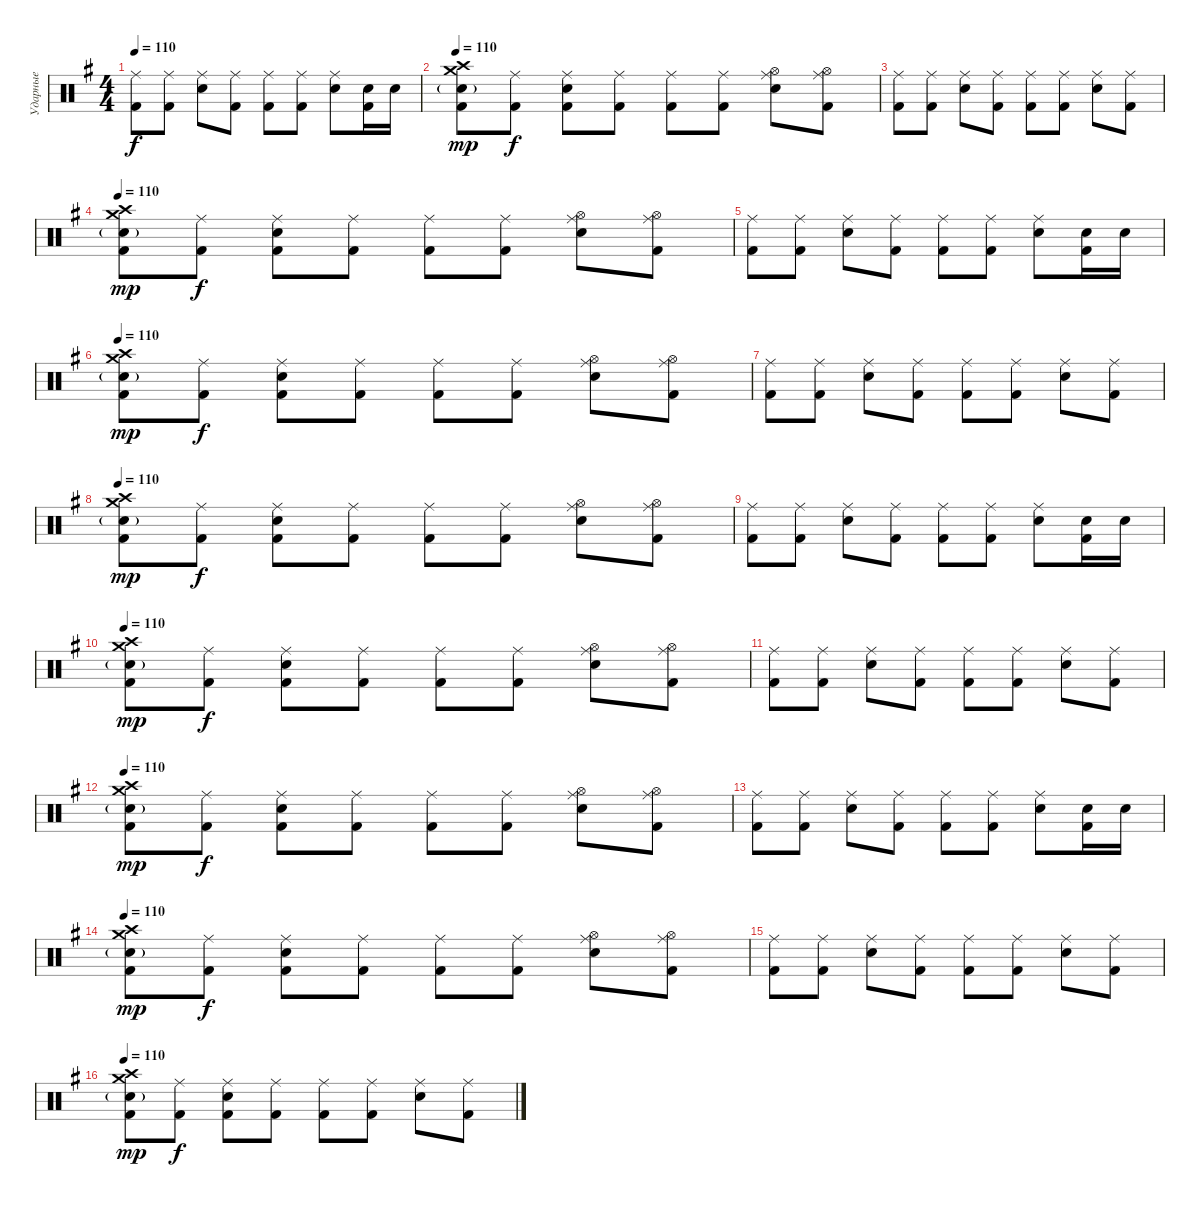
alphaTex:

\track ("Ударные" "Ударные") {instrument percussion}
\staff {score}
\articulation defaults
\ts (4 4)
\tempo 110
\clef neutral
\ks eminor
("Ride (middle)" "Kick (hit) 2").8{dy f} ("Ride (middle)" "Kick (hit) 2").8 ("Ride (middle)" "Electric Snare (hit)").8 ("Ride (middle)" "Kick (hit) 2").8 ("Ride (middle)" "Kick (hit) 2").8 ("Ride (middle)" "Kick (hit) 2").8 ("Ride (middle)" "Electric Snare (hit)").8 ("Electric Snare (hit)" "Kick (hit) 2").16 "Electric Snare (hit)".16 |
\tempo 110
("Crash high (hit)" "Crash medium (hit)" "Electric Snare (hit)"{g} "Kick (hit) 2").8{dy mp} ("Ride (middle)" "Kick (hit) 2").8{dy f} ("Ride (middle)" "Electric Snare (hit)" "Kick (hit) 2").8 ("Ride (middle)" "Kick (hit) 2").8 ("Ride (middle)" "Kick (hit) 2").8 ("Ride (middle)" "Kick (hit) 2").8 ("Ride (middle)" "Hi-Hat (open)" "Electric Snare (hit)").8 ("Ride (middle)" "Hi-Hat (open)" "Kick (hit) 2").8 |
("Ride (middle)" "Kick (hit) 2").8 ("Ride (middle)" "Kick (hit) 2").8 ("Ride (middle)" "Electric Snare (hit)").8 ("Ride (middle)" "Kick (hit) 2").8 ("Ride (middle)" "Kick (hit) 2").8 ("Ride (middle)" "Kick (hit) 2").8 ("Ride (middle)" "Electric Snare (hit)").8 ("Ride (middle)" "Kick (hit) 2").8 |
\tempo 110
("Crash high (hit)" "Crash medium (hit)" "Electric Snare (hit)"{g} "Kick (hit) 2").8{dy mp} ("Ride (middle)" "Kick (hit) 2").8{dy f} ("Ride (middle)" "Electric Snare (hit)" "Kick (hit) 2").8 ("Ride (middle)" "Kick (hit) 2").8 ("Ride (middle)" "Kick (hit) 2").8 ("Ride (middle)" "Kick (hit) 2").8 ("Ride (middle)" "Hi-Hat (open)" "Electric Snare (hit)").8 ("Ride (middle)" "Hi-Hat (open)" "Kick (hit) 2").8 |
("Ride (middle)" "Kick (hit) 2").8 ("Ride (middle)" "Kick (hit) 2").8 ("Ride (middle)" "Electric Snare (hit)").8 ("Ride (middle)" "Kick (hit) 2").8 ("Ride (middle)" "Kick (hit) 2").8 ("Ride (middle)" "Kick (hit) 2").8 ("Ride (middle)" "Electric Snare (hit)").8 ("Electric Snare (hit)" "Kick (hit) 2").16 "Electric Snare (hit)".16 |
\tempo 110
("Crash high (hit)" "Crash medium (hit)" "Electric Snare (hit)"{g} "Kick (hit) 2").8{dy mp} ("Ride (middle)" "Kick (hit) 2").8{dy f} ("Ride (middle)" "Electric Snare (hit)" "Kick (hit) 2").8 ("Ride (middle)" "Kick (hit) 2").8 ("Ride (middle)" "Kick (hit) 2").8 ("Ride (middle)" "Kick (hit) 2").8 ("Ride (middle)" "Hi-Hat (open)" "Electric Snare (hit)").8 ("Ride (middle)" "Hi-Hat (open)" "Kick (hit) 2").8 |
("Ride (middle)" "Kick (hit) 2").8 ("Ride (middle)" "Kick (hit) 2").8 ("Ride (middle)" "Electric Snare (hit)").8 ("Ride (middle)" "Kick (hit) 2").8 ("Ride (middle)" "Kick (hit) 2").8 ("Ride (middle)" "Kick (hit) 2").8 ("Ride (middle)" "Electric Snare (hit)").8 ("Ride (middle)" "Kick (hit) 2").8 |
\tempo 110
("Crash high (hit)" "Crash medium (hit)" "Electric Snare (hit)"{g} "Kick (hit) 2").8{dy mp} ("Ride (middle)" "Kick (hit) 2").8{dy f} ("Ride (middle)" "Electric Snare (hit)" "Kick (hit) 2").8 ("Ride (middle)" "Kick (hit) 2").8 ("Ride (middle)" "Kick (hit) 2").8 ("Ride (middle)" "Kick (hit) 2").8 ("Ride (middle)" "Hi-Hat (open)" "Electric Snare (hit)").8 ("Ride (middle)" "Hi-Hat (open)" "Kick (hit) 2").8 |
("Ride (middle)" "Kick (hit) 2").8 ("Ride (middle)" "Kick (hit) 2").8 ("Ride (middle)" "Electric Snare (hit)").8 ("Ride (middle)" "Kick (hit) 2").8 ("Ride (middle)" "Kick (hit) 2").8 ("Ride (middle)" "Kick (hit) 2").8 ("Ride (middle)" "Electric Snare (hit)").8 ("Electric Snare (hit)" "Kick (hit) 2").16 "Electric Snare (hit)".16 |
\tempo 110
("Crash high (hit)" "Crash medium (hit)" "Electric Snare (hit)"{g} "Kick (hit) 2").8{dy mp} ("Ride (middle)" "Kick (hit) 2").8{dy f} ("Ride (middle)" "Electric Snare (hit)" "Kick (hit) 2").8 ("Ride (middle)" "Kick (hit) 2").8 ("Ride (middle)" "Kick (hit) 2").8 ("Ride (middle)" "Kick (hit) 2").8 ("Ride (middle)" "Hi-Hat (open)" "Electric Snare (hit)").8 ("Ride (middle)" "Hi-Hat (open)" "Kick (hit) 2").8 |
("Ride (middle)" "Kick (hit) 2").8 ("Ride (middle)" "Kick (hit) 2").8 ("Ride (middle)" "Electric Snare (hit)").8 ("Ride (middle)" "Kick (hit) 2").8 ("Ride (middle)" "Kick (hit) 2").8 ("Ride (middle)" "Kick (hit) 2").8 ("Ride (middle)" "Electric Snare (hit)").8 ("Ride (middle)" "Kick (hit) 2").8 |
\tempo 110
("Crash high (hit)" "Crash medium (hit)" "Electric Snare (hit)"{g} "Kick (hit) 2").8{dy mp} ("Ride (middle)" "Kick (hit) 2").8{dy f} ("Ride (middle)" "Electric Snare (hit)" "Kick (hit) 2").8 ("Ride (middle)" "Kick (hit) 2").8 ("Ride (middle)" "Kick (hit) 2").8 ("Ride (middle)" "Kick (hit) 2").8 ("Ride (middle)" "Hi-Hat (open)" "Electric Snare (hit)").8 ("Ride (middle)" "Hi-Hat (open)" "Kick (hit) 2").8 |
("Ride (middle)" "Kick (hit) 2").8 ("Ride (middle)" "Kick (hit) 2").8 ("Ride (middle)" "Electric Snare (hit)").8 ("Ride (middle)" "Kick (hit) 2").8 ("Ride (middle)" "Kick (hit) 2").8 ("Ride (middle)" "Kick (hit) 2").8 ("Ride (middle)" "Electric Snare (hit)").8 ("Electric Snare (hit)" "Kick (hit) 2").16 "Electric Snare (hit)".16 |
\tempo 110
("Crash high (hit)" "Crash medium (hit)" "Electric Snare (hit)"{g} "Kick (hit) 2").8{dy mp} ("Ride (middle)" "Kick (hit) 2").8{dy f} ("Ride (middle)" "Electric Snare (hit)" "Kick (hit) 2").8 ("Ride (middle)" "Kick (hit) 2").8 ("Ride (middle)" "Kick (hit) 2").8 ("Ride (middle)" "Kick (hit) 2").8 ("Ride (middle)" "Hi-Hat (open)" "Electric Snare (hit)").8 ("Ride (middle)" "Hi-Hat (open)" "Kick (hit) 2").8 |
("Ride (middle)" "Kick (hit) 2").8 ("Ride (middle)" "Kick (hit) 2").8 ("Ride (middle)" "Electric Snare (hit)").8 ("Ride (middle)" "Kick (hit) 2").8 ("Ride (middle)" "Kick (hit) 2").8 ("Ride (middle)" "Kick (hit) 2").8 ("Ride (middle)" "Electric Snare (hit)").8 ("Ride (middle)" "Kick (hit) 2").8 |
\tempo 110
("Crash high (hit)" "Crash medium (hit)" "Electric Snare (hit)"{g} "Kick (hit) 2").8{dy mp} ("Ride (middle)" "Kick (hit) 2").8{dy f} ("Ride (middle)" "Electric Snare (hit)" "Kick (hit) 2").8 ("Ride (middle)" "Kick (hit) 2").8 ("Ride (middle)" "Kick (hit) 2").8 ("Ride (middle)" "Kick (hit) 2").8 ("Ride (middle)" "Electric Snare (hit)").8 ("Ride (middle)" "Kick (hit) 2").8
